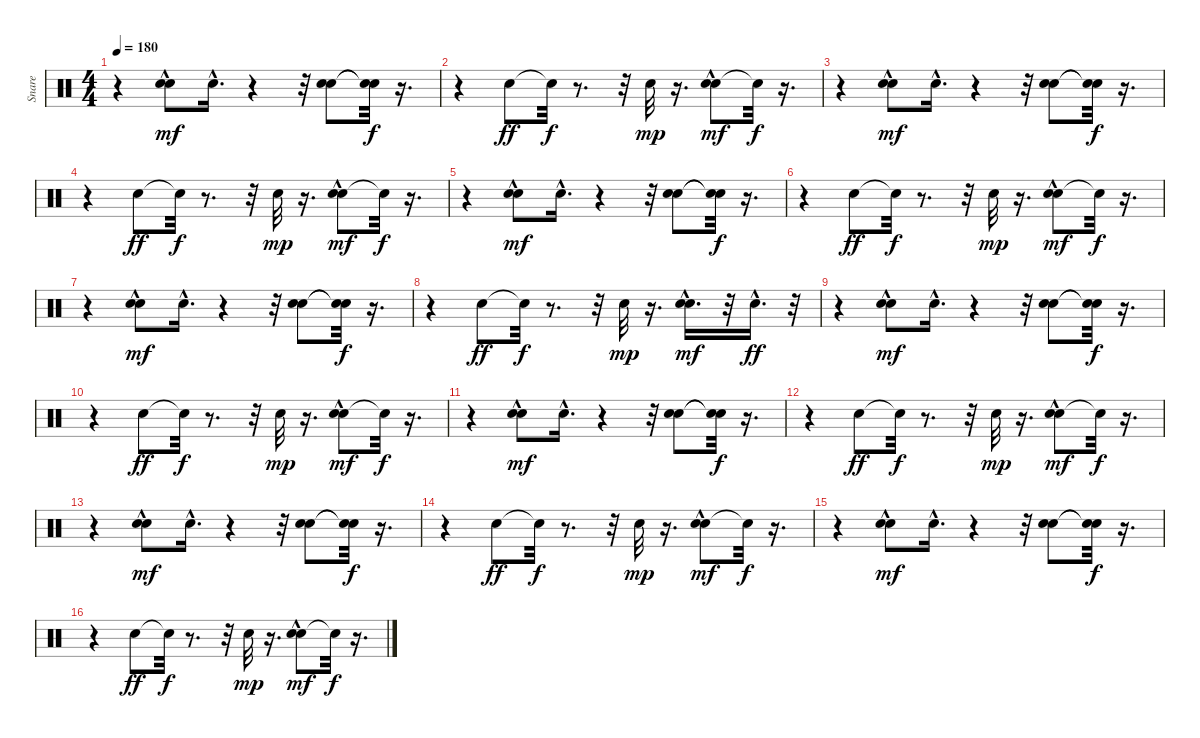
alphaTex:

\track ("Snare" "Snare") {instrument percussion}
\staff {score}
\articulation defaults
\ts (4 4)
\tempo 180
\clef neutral
\ks c
r.4{dy mf} ("Snare (hit) 2" "Hand Clap (hit)"{hac}).8 "Hand Clap (hit)"{hac}.16{d} r.4 r.32 ("Snare (hit) 2" "Hand Clap (hit)").8 ("Snare (hit)"{t} "Snare (hit)"{t}).32{dy f} r.16{d} |
r.4 "Snare (hit) 2".8{dy ff} "Snare (hit)"{t}.32{dy f} r.8{d} r.32 "Hand Clap (hit)".32{dy mp} r.16{d} ("Snare (hit) 2" "Hand Clap (hit)"{hac}).8{dy mf} "Snare (hit)"{t}.32{dy f} r.16{d} |
r.4 ("Snare (hit) 2" "Hand Clap (hit)"{hac}).8{dy mf} "Hand Clap (hit)"{hac}.16{d} r.4 r.32 ("Snare (hit) 2" "Hand Clap (hit)").8 ("Snare (hit)"{t} "Snare (hit)"{t}).32{dy f} r.16{d} |
r.4 "Snare (hit) 2".8{dy ff} "Snare (hit)"{t}.32{dy f} r.8{d} r.32 "Hand Clap (hit)".32{dy mp} r.16{d} ("Snare (hit) 2" "Hand Clap (hit)"{hac}).8{dy mf} "Snare (hit)"{t}.32{dy f} r.16{d} |
r.4 ("Snare (hit) 2" "Hand Clap (hit)"{hac}).8{dy mf} "Hand Clap (hit)"{hac}.16{d} r.4 r.32 ("Snare (hit) 2" "Hand Clap (hit)").8 ("Snare (hit)"{t} "Snare (hit)"{t}).32{dy f} r.16{d} |
r.4 "Snare (hit) 2".8{dy ff} "Snare (hit)"{t}.32{dy f} r.8{d} r.32 "Hand Clap (hit)".32{dy mp} r.16{d} ("Snare (hit) 2" "Hand Clap (hit)"{hac}).8{dy mf} "Snare (hit)"{t}.32{dy f} r.16{d} |
r.4 ("Snare (hit) 2" "Hand Clap (hit)"{hac}).8{dy mf} "Hand Clap (hit)"{hac}.16{d} r.4 r.32 ("Snare (hit) 2" "Hand Clap (hit)").8 ("Snare (hit)"{t} "Snare (hit)"{t}).32{dy f} r.16{d} |
r.4 "Snare (hit) 2".8{dy ff} "Snare (hit)"{t}.32{dy f} r.8{d} r.32 "Hand Clap (hit)".32{dy mp} r.16{d} ("Snare (hit) 2"{hac} "Hand Clap (hit)"{hac}).16{d dy mf} r.32 "Snare (hit) 2"{hac}.16{d dy ff} r.32 |
r.4 ("Snare (hit) 2" "Hand Clap (hit)"{hac}).8{dy mf} "Hand Clap (hit)"{hac}.16{d} r.4 r.32 ("Snare (hit) 2" "Hand Clap (hit)").8 ("Snare (hit)"{t} "Snare (hit)"{t}).32{dy f} r.16{d} |
r.4 "Snare (hit) 2".8{dy ff} "Snare (hit)"{t}.32{dy f} r.8{d} r.32 "Hand Clap (hit)".32{dy mp} r.16{d} ("Snare (hit) 2" "Hand Clap (hit)"{hac}).8{dy mf} "Snare (hit)"{t}.32{dy f} r.16{d} |
r.4 ("Snare (hit) 2" "Hand Clap (hit)"{hac}).8{dy mf} "Hand Clap (hit)"{hac}.16{d} r.4 r.32 ("Snare (hit) 2" "Hand Clap (hit)").8 ("Snare (hit)"{t} "Snare (hit)"{t}).32{dy f} r.16{d} |
r.4 "Snare (hit) 2".8{dy ff} "Snare (hit)"{t}.32{dy f} r.8{d} r.32 "Hand Clap (hit)".32{dy mp} r.16{d} ("Snare (hit) 2" "Hand Clap (hit)"{hac}).8{dy mf} "Snare (hit)"{t}.32{dy f} r.16{d} |
r.4 ("Snare (hit) 2" "Hand Clap (hit)"{hac}).8{dy mf} "Hand Clap (hit)"{hac}.16{d} r.4 r.32 ("Snare (hit) 2" "Hand Clap (hit)").8 ("Snare (hit)"{t} "Snare (hit)"{t}).32{dy f} r.16{d} |
r.4 "Snare (hit) 2".8{dy ff} "Snare (hit)"{t}.32{dy f} r.8{d} r.32 "Hand Clap (hit)".32{dy mp} r.16{d} ("Snare (hit) 2" "Hand Clap (hit)"{hac}).8{dy mf} "Snare (hit)"{t}.32{dy f} r.16{d} |
r.4 ("Snare (hit) 2" "Hand Clap (hit)"{hac}).8{dy mf} "Hand Clap (hit)"{hac}.16{d} r.4 r.32 ("Snare (hit) 2" "Hand Clap (hit)").8 ("Snare (hit)"{t} "Snare (hit)"{t}).32{dy f} r.16{d} |
r.4 "Snare (hit) 2".8{dy ff} "Snare (hit)"{t}.32{dy f} r.8{d} r.32 "Hand Clap (hit)".32{dy mp} r.16{d} ("Snare (hit) 2" "Hand Clap (hit)"{hac}).8{dy mf} "Snare (hit)"{t}.32{dy f} r.16{d}
